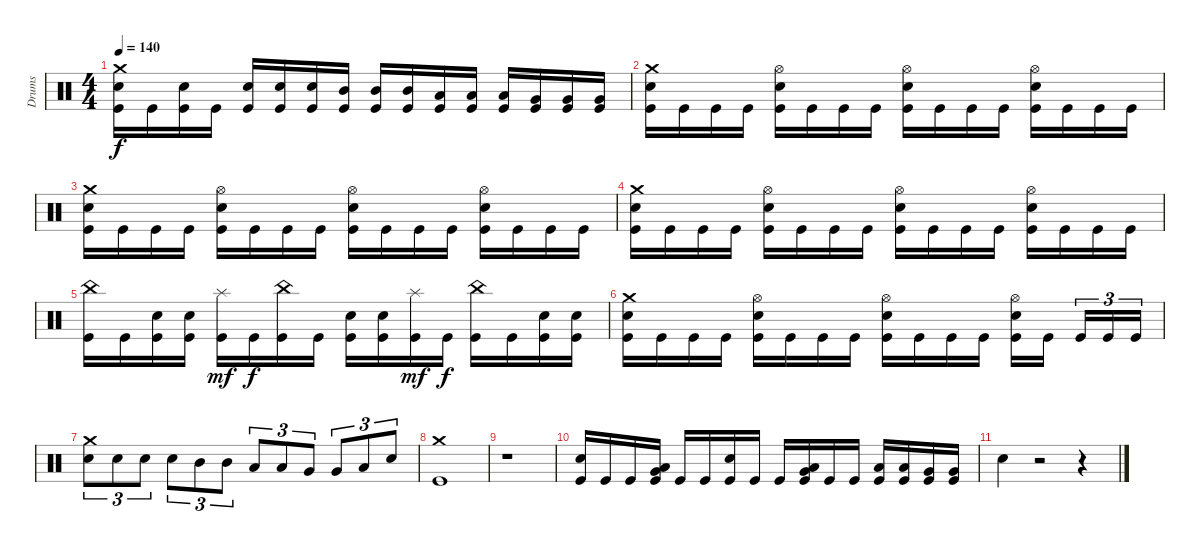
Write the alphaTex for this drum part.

\track ("Drums" "Drums") {instrument percussion}
\staff {score}
\articulation defaults
\ts (4 4)
\tempo 140
\clef neutral
\ks c
("Kick (hit)" "Electric Snare (hit)" "Crash medium (hit)").16{dy f} "Kick (hit)".16 ("Kick (hit)" "Electric Snare (hit)").16 "Kick (hit)".16 ("Kick (hit)" "Electric Snare (hit)").16 ("Kick (hit)" "Electric Snare (hit)").16 ("Kick (hit)" "Electric Snare (hit)").16 ("Kick (hit)" "Mid Tom (hit)").16 ("Kick (hit)" "Mid Tom (hit)").16 ("Kick (hit)" "Mid Tom (hit)").16 ("Kick (hit)" "Low Tom (hit)").16 ("Kick (hit)" "Low Tom (hit)").16 ("Kick (hit)" "Low Tom (hit)").16 ("Kick (hit)" "Very Low Tom (hit)").16 ("Kick (hit)" "Very Low Tom (hit)").16 ("Kick (hit)" "Very Low Tom (hit)").16 |
("Kick (hit)" "Electric Snare (hit)" "Crash medium (hit)").16 "Kick (hit)".16 "Kick (hit)".16 "Kick (hit)".16 ("Kick (hit)" "Electric Snare (hit)" "Hi-Hat (open)").16 "Kick (hit)".16 "Kick (hit)".16 "Kick (hit)".16 ("Kick (hit)" "Electric Snare (hit)" "Hi-Hat (open)").16 "Kick (hit)".16 "Kick (hit)".16 "Kick (hit)".16 ("Kick (hit)" "Electric Snare (hit)" "Hi-Hat (open)").16 "Kick (hit)".16 "Kick (hit)".16 "Kick (hit)".16 |
("Kick (hit)" "Electric Snare (hit)" "Crash medium (hit)").16 "Kick (hit)".16 "Kick (hit)".16 "Kick (hit)".16 ("Kick (hit)" "Electric Snare (hit)" "Hi-Hat (open)").16 "Kick (hit)".16 "Kick (hit)".16 "Kick (hit)".16 ("Kick (hit)" "Electric Snare (hit)" "Hi-Hat (open)").16 "Kick (hit)".16 "Kick (hit)".16 "Kick (hit)".16 ("Kick (hit)" "Electric Snare (hit)" "Hi-Hat (open)").16 "Kick (hit)".16 "Kick (hit)".16 "Kick (hit)".16 |
("Kick (hit)" "Electric Snare (hit)" "Crash medium (hit)").16 "Kick (hit)".16 "Kick (hit)".16 "Kick (hit)".16 ("Kick (hit)" "Electric Snare (hit)" "Hi-Hat (open)").16 "Kick (hit)".16 "Kick (hit)".16 "Kick (hit)".16 ("Kick (hit)" "Electric Snare (hit)" "Hi-Hat (open)").16 "Kick (hit)".16 "Kick (hit)".16 "Kick (hit)".16 ("Kick (hit)" "Electric Snare (hit)" "Hi-Hat (open)").16 "Kick (hit)".16 "Kick (hit)".16 "Kick (hit)".16 |
("Kick (hit)" "China (hit)").16 "Kick (hit)".16 ("Kick (hit)" "Electric Snare (hit)").16 ("Kick (hit)" "Electric Snare (hit)").16 ("Kick (hit)" "Splash (hit)").16{dy mf} "Kick (hit)".16{dy f} ("Kick (hit)" "China (hit)").16 "Kick (hit)".16 ("Kick (hit)" "Electric Snare (hit)").16 ("Kick (hit)" "Electric Snare (hit)").16 ("Kick (hit)" "Splash (hit)").16{dy mf} "Kick (hit)".16{dy f} ("Kick (hit)" "China (hit)").16 "Kick (hit)".16 ("Kick (hit)" "Electric Snare (hit)").16 ("Kick (hit)" "Electric Snare (hit)").16 |
("Kick (hit)" "Electric Snare (hit)" "Crash medium (hit)").16 "Kick (hit)".16 "Kick (hit)".16 "Kick (hit)".16 ("Kick (hit)" "Electric Snare (hit)" "Hi-Hat (open)").16 "Kick (hit)".16 "Kick (hit)".16 "Kick (hit)".16 ("Kick (hit)" "Electric Snare (hit)" "Hi-Hat (open)").16 "Kick (hit)".16 "Kick (hit)".16 "Kick (hit)".16 ("Kick (hit)" "Electric Snare (hit)" "Hi-Hat (open)").16 "Kick (hit)".16 "Kick (hit)".16{tu (3 2)} "Kick (hit)".16{tu (3 2)} "Kick (hit)".16{tu (3 2)} |
("Electric Snare (hit)" "Crash medium (hit)").8{tu (3 2)} "Electric Snare (hit)".8{tu (3 2)} "Electric Snare (hit)".8{tu (3 2)} "Electric Snare (hit)".8{tu (3 2)} "Mid Tom (hit)".8{tu (3 2)} "Mid Tom (hit)".8{tu (3 2)} "Low Tom (hit)".8{tu (3 2)} "Low Tom (hit)".8{tu (3 2)} "Very Low Tom (hit)".8{tu (3 2)} "Very Low Tom (hit)".8{tu (3 2)} "Low Floor Tom (hit)".8{tu (3 2)} "Electric Snare (hit)".8{tu (3 2)} |
("Kick (hit)" "Crash medium (hit)").1 |
r.1 |
("Kick (hit)" "Electric Snare (hit)").16 "Kick (hit)".16 "Kick (hit)".16 ("Kick (hit)" "Low Tom (hit)" "Very Low Tom (hit)").16 "Kick (hit)".16 "Kick (hit)".16 ("Kick (hit)" "Electric Snare (hit)").16 "Kick (hit)".16 "Kick (hit)".16 ("Kick (hit)" "Low Tom (hit)" "Very Low Tom (hit)").16 "Kick (hit)".16 "Kick (hit)".16 ("Kick (hit)" "Low Tom (hit)").16 ("Kick (hit)" "Low Tom (hit)").16 ("Kick (hit)" "Very Low Tom (hit)").16 ("Kick (hit)" "Very Low Tom (hit)").16 |
"Electric Snare (hit)".4 r.2 r.4
